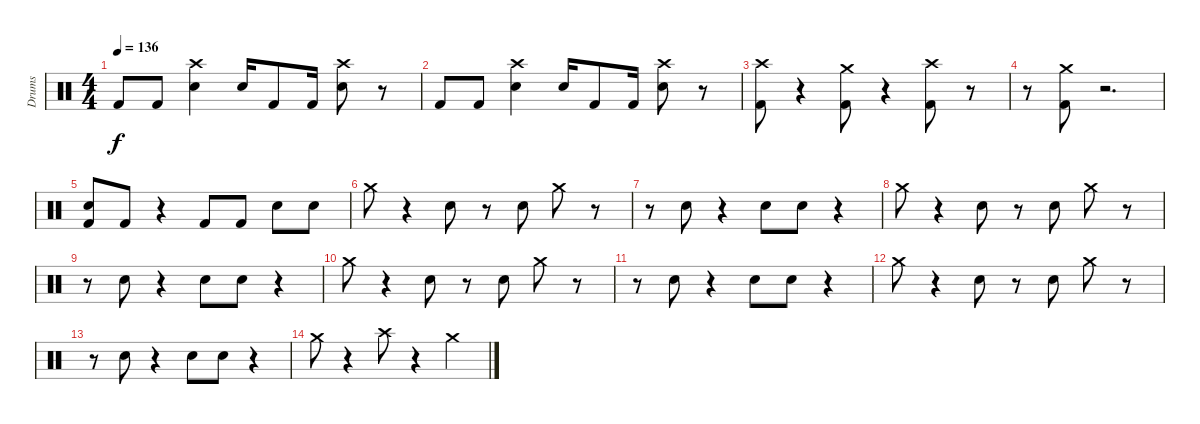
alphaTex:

\track ("Drums" "Drums") {instrument percussion}
\staff {score}
\articulation defaults
\ts (4 4)
\tempo 136
\clef neutral
\ks c "Kick (hit) 2".8{dy f} "Kick (hit) 2".8
("Crash high (hit)" "Snare (hit) 2").4 "Snare (hit) 2".16 "Kick (hit) 2".8 "Kick (hit) 2".16 ("Crash high (hit)" "Snare (hit) 2").8 r.8 |
"Kick (hit) 2".8 "Kick (hit) 2".8 ("Crash high (hit)" "Snare (hit) 2").4 "Snare (hit) 2".16 "Kick (hit) 2".8 "Kick (hit) 2".16 ("Crash high (hit)" "Snare (hit) 2").8 r.8 |
("Crash high (hit)" "Kick (hit) 2").8 r.4 ("Crash medium (hit)" "Kick (hit) 2").8 r.4 ("Crash high (hit)" "Kick (hit) 2").8 r.8 |
r.8 ("Crash medium (hit)" "Kick (hit) 2").8 r.2{d} |
("Snare (hit) 2" "Kick (hit) 2").8 "Kick (hit) 2".8 r.4 "Kick (hit) 2".8 "Kick (hit) 2".8 "Snare (hit) 2".8 "Snare (hit) 2".8 |
"Crash medium (hit)".8 r.4 "Snare (hit) 2".8 r.8 "Snare (hit) 2".8 "Crash medium (hit)".8 r.8 |
r.8 "Snare (hit) 2".8 r.4 "Snare (hit) 2".8 "Snare (hit) 2".8 r.4 |
"Crash medium (hit)".8 r.4 "Snare (hit) 2".8 r.8 "Snare (hit) 2".8 "Crash medium (hit)".8 r.8 |
r.8 "Snare (hit) 2".8 r.4 "Snare (hit) 2".8 "Snare (hit) 2".8 r.4 |
"Crash medium (hit)".8 r.4 "Snare (hit) 2".8 r.8 "Snare (hit) 2".8 "Crash medium (hit)".8 r.8 |
r.8 "Snare (hit) 2".8 r.4 "Snare (hit) 2".8 "Snare (hit) 2".8 r.4 |
"Crash medium (hit)".8 r.4 "Snare (hit) 2".8 r.8 "Snare (hit) 2".8 "Crash medium (hit)".8 r.8 |
r.8 "Snare (hit) 2".8 r.4 "Snare (hit) 2".8 "Snare (hit) 2".8 r.4 |
"Crash medium (hit)".8 r.4 "Crash high (hit)".8 r.4 "Crash medium (hit)".4
